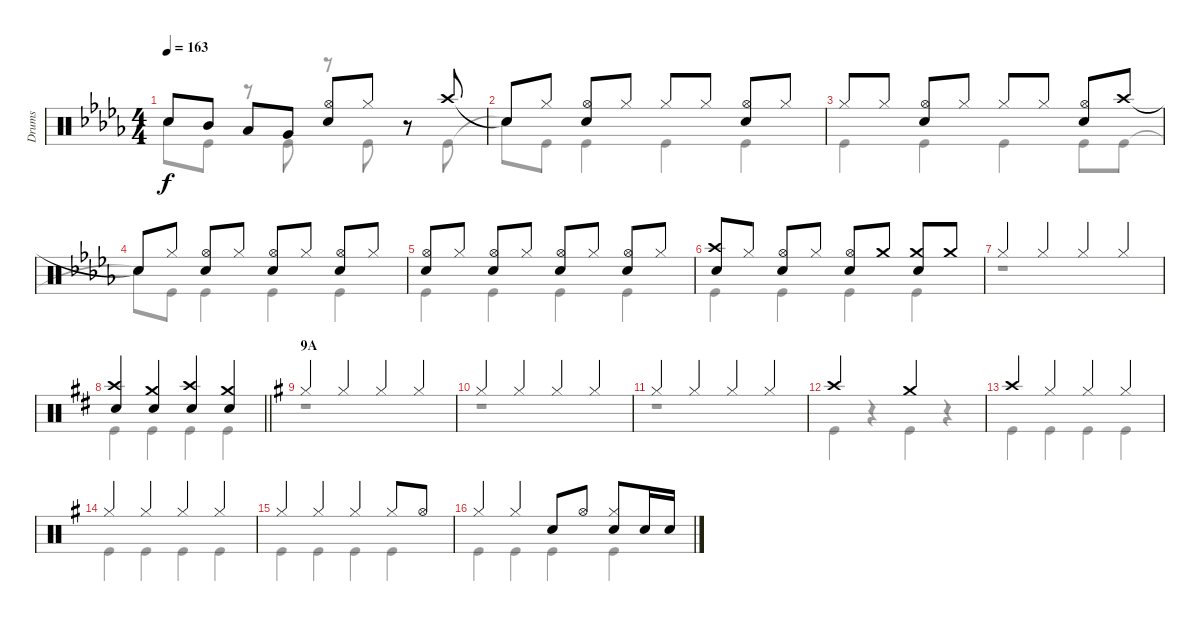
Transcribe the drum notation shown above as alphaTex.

\track ("Drums" "Drums") {instrument percussion}
\staff {score}
\articulation defaults
\voice
\ts (4 4)
\tempo 163
\clef neutral
\ks db "Snare (hit)"{t}.8{dy f} "Mid Tom (hit)".8 "Low Tom (hit)".8 "Very Low Tom (hit)".8
("Hi-Hat (open)" "Snare (hit) 2").8 "Hi-Hat (closed)".8 r.8 "Crash high (hit)".8 |
"Snare (hit)"{t}.8 "Hi-Hat (closed)".8 ("Hi-Hat (open)" "Snare (hit) 2").8 "Hi-Hat (closed)".8 "Hi-Hat (closed)".8 "Hi-Hat (closed)".8 ("Hi-Hat (open)" "Snare (hit) 2").8 "Hi-Hat (closed)".8 |
"Hi-Hat (closed)".8 "Hi-Hat (closed)".8 ("Hi-Hat (open)" "Snare (hit) 2").8 "Hi-Hat (closed)".8 "Hi-Hat (closed)".8 "Hi-Hat (closed)".8 ("Hi-Hat (open)" "Snare (hit) 2").8 "Crash high (hit)".8 |
"Snare (hit)"{t}.8 "Hi-Hat (closed)".8 ("Hi-Hat (open)" "Snare (hit) 2").8 "Hi-Hat (closed)".8 ("Hi-Hat (open)" "Snare (hit) 2").8 "Hi-Hat (closed)".8 ("Hi-Hat (open)" "Snare (hit) 2").8 "Hi-Hat (closed)".8 |
("Hi-Hat (open)" "Snare (hit) 2").8 "Hi-Hat (closed)".8 ("Hi-Hat (open)" "Snare (hit) 2").8 "Hi-Hat (closed)".8 ("Hi-Hat (open)" "Snare (hit) 2").8 "Hi-Hat (closed)".8 ("Hi-Hat (open)" "Snare (hit) 2").8 "Hi-Hat (closed)".8 |
("Crash high (hit)" "Snare (hit) 2").8 "Hi-Hat (closed)".8 ("Hi-Hat (open)" "Snare (hit) 2").8 "Hi-Hat (closed)".8 ("Hi-Hat (open)" "Snare (hit) 2").8 "Crash medium (hit)".8 ("Crash medium (hit)" "Snare (hit) 2").8 "Crash medium (hit)".8 |
"Hi-Hat (closed)".4 "Hi-Hat (closed)".4 "Hi-Hat (closed)".4 "Hi-Hat (closed)".4 |
\barLineRight lightlight
\ks d
("Crash high (hit)" "Snare (hit) 2").4 ("Crash medium (hit)" "Snare (hit) 2").4 ("Crash high (hit)" "Snare (hit) 2").4 ("Crash medium (hit)" "Snare (hit) 2").4 |
\section ("" "9A")
\ks g "Hi-Hat (closed)".4 "Hi-Hat (closed)".4 "Hi-Hat (closed)".4 "Hi-Hat (closed)".4
|
"Hi-Hat (closed)".4 "Hi-Hat (closed)".4 "Hi-Hat (closed)".4 "Hi-Hat (closed)".4 |
"Hi-Hat (closed)".4 "Hi-Hat (closed)".4 "Hi-Hat (closed)".4 "Hi-Hat (closed)".4 |
"Crash high (hit)".2 "Crash medium (hit)".2 |
"Crash high (hit)".4 "Hi-Hat (closed)".4 "Hi-Hat (closed)".4 "Hi-Hat (closed)".4 |
"Hi-Hat (closed)".4 "Hi-Hat (closed)".4 "Hi-Hat (closed)".4 "Hi-Hat (closed)".4 |
"Hi-Hat (closed)".4 "Hi-Hat (closed)".4 "Hi-Hat (closed)".4 "Hi-Hat (closed)".8 "Hi-Hat (open)".8 |
"Hi-Hat (closed)".4 "Hi-Hat (closed)".4 "Snare (hit) 2".8 "Hi-Hat (open)".8 ("Hi-Hat (closed)" "Snare (hit) 2").8 "Snare (hit) 2".16 "Snare (hit) 2".16
\voice
\clef neutral
\ottava regular
\simile none
\ks db "Snare (hit)"{t}.8{dy f} "Kick (hit)".8
r.8 "Kick (hit)".8 r.8 "Kick (hit)".8 r.8 "Kick (hit)".8 |
"Snare (hit)"{t}.8 "Kick (hit)".8 "Kick (hit)".4 "Kick (hit)".4 "Kick (hit)".4 |
"Kick (hit)".4 "Kick (hit)".4 "Kick (hit)".4 "Kick (hit)".8 "Kick (hit)".8 |
"Snare (hit)"{t}.8 "Kick (hit)".8 "Kick (hit)".4 "Kick (hit)".4 "Kick (hit)".4 |
"Kick (hit)".4 "Kick (hit)".4 "Kick (hit)".4 "Kick (hit)".4 |
"Kick (hit)".4 "Kick (hit)".4 "Kick (hit)".4 "Kick (hit)".4 |
r.1 |
\barLineRight lightlight
\ks d "Kick (hit)".4 "Kick (hit)".4 "Kick (hit)".4 "Kick (hit)".4
|
\ks g
r.1 |
r.1 |
r.1 |
"Kick (hit)".4 r.4 "Kick (hit)".4 r.4 |
"Kick (hit)".4 "Kick (hit)".4 "Kick (hit)".4 "Kick (hit)".4 |
"Kick (hit)".4 "Kick (hit)".4 "Kick (hit)".4 "Kick (hit)".4 |
"Kick (hit)".4 "Kick (hit)".4 "Kick (hit)".4 "Kick (hit)".4 |
"Kick (hit)".4 "Kick (hit)".4 "Kick (hit)".4 "Kick (hit)".4
